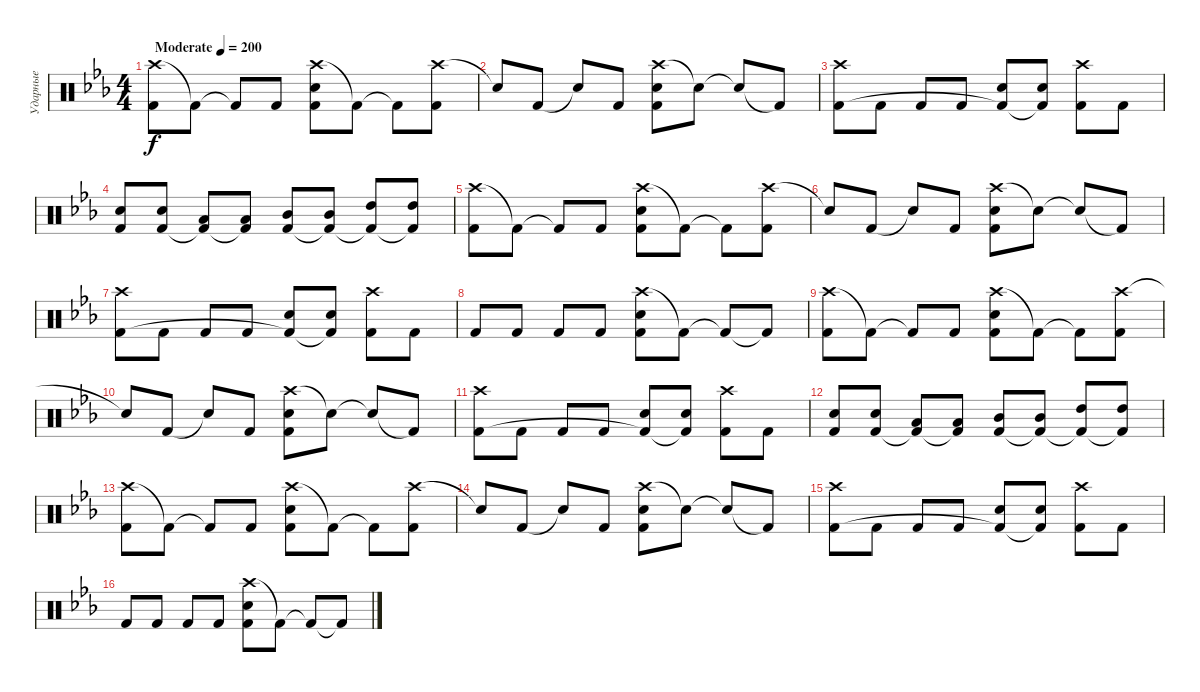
\track ("Ударные" "Ударные") {instrument percussion}
\staff {score}
\articulation defaults
\ts (4 4)
\tempo (200 "Moderate")
\clef neutral
\ks cminor
("Crash high (hit)" "Kick (hit) 2").8{dy f} "Kick (hit) 2"{t}.8 "Kick (hit) 2"{t}.8 "Kick (hit) 2".8 ("Crash high (hit)" "Electric Snare (hit)" "Kick (hit) 2").8 "Kick (hit) 2"{t}.8 "Kick (hit) 2"{t}.8 ("Crash high (hit)" "Kick (hit) 2").8 |
"Snare (hit)"{t}.8 "Kick (hit) 2".8 "Snare (hit)"{t}.8 "Kick (hit) 2".8 ("Crash high (hit)" "Electric Snare (hit)" "Kick (hit) 2").8 "Snare (hit)"{t}.8 "Snare (hit)"{t}.8 "Kick (hit) 2"{t}.8 |
("Crash high (hit)" "Kick (hit) 2").8 "Kick (hit) 2".8 "Kick (hit) 2".8 "Kick (hit) 2".8 ("Electric Snare (hit)" "Kick (hit) 2"{t}).8 ("Electric Snare (hit)" "Kick (hit) 2"{t}).8 ("Crash high (hit)" "Kick (hit) 2").8 "Kick (hit) 2".8 |
("Electric Snare (hit)" "Kick (hit) 2").8 ("Electric Snare (hit)" "Kick (hit) 2").8 ("Low Tom (hit)" "Kick (hit) 2"{t}).8 ("Low Tom (hit)" "Kick (hit) 2"{t}).8 ("Mid Tom (hit)" "Kick (hit) 2").8 ("Mid Tom (hit)" "Kick (hit) 2"{t}).8 ("High Tom (hit)" "Kick (hit) 2"{t}).8 ("High Tom (hit)" "Kick (hit) 2"{t}).8 |
("Crash high (hit)" "Kick (hit) 2").8 "Kick (hit) 2"{t}.8 "Kick (hit) 2"{t}.8 "Kick (hit) 2".8 ("Crash high (hit)" "Electric Snare (hit)" "Kick (hit) 2").8 "Kick (hit) 2"{t}.8 "Kick (hit) 2"{t}.8 ("Crash high (hit)" "Kick (hit) 2").8 |
"Snare (hit)"{t}.8 "Kick (hit) 2".8 "Snare (hit)"{t}.8 "Kick (hit) 2".8 ("Crash high (hit)" "Electric Snare (hit)" "Kick (hit) 2").8 "Snare (hit)"{t}.8 "Snare (hit)"{t}.8 "Kick (hit) 2"{t}.8 |
("Crash high (hit)" "Kick (hit) 2").8 "Kick (hit) 2".8 "Kick (hit) 2".8 "Kick (hit) 2".8 ("Electric Snare (hit)" "Kick (hit) 2"{t}).8 ("Electric Snare (hit)" "Kick (hit) 2"{t}).8 ("Crash high (hit)" "Kick (hit) 2").8 "Kick (hit) 2".8 |
"Kick (hit) 2".8 "Kick (hit) 2".8 "Kick (hit) 2".8 "Kick (hit) 2".8 ("Crash high (hit)" "Electric Snare (hit)" "Kick (hit) 2").8 "Kick (hit) 2"{t}.8 "Kick (hit) 2"{t}.8 "Kick (hit) 2"{t}.8 |
("Crash high (hit)" "Kick (hit) 2").8 "Kick (hit) 2"{t}.8 "Kick (hit) 2"{t}.8 "Kick (hit) 2".8 ("Crash high (hit)" "Electric Snare (hit)" "Kick (hit) 2").8 "Kick (hit) 2"{t}.8 "Kick (hit) 2"{t}.8 ("Crash high (hit)" "Kick (hit) 2").8 |
"Snare (hit)"{t}.8 "Kick (hit) 2".8 "Snare (hit)"{t}.8 "Kick (hit) 2".8 ("Crash high (hit)" "Electric Snare (hit)" "Kick (hit) 2").8 "Snare (hit)"{t}.8 "Snare (hit)"{t}.8 "Kick (hit) 2"{t}.8 |
("Crash high (hit)" "Kick (hit) 2").8 "Kick (hit) 2".8 "Kick (hit) 2".8 "Kick (hit) 2".8 ("Electric Snare (hit)" "Kick (hit) 2"{t}).8 ("Electric Snare (hit)" "Kick (hit) 2"{t}).8 ("Crash high (hit)" "Kick (hit) 2").8 "Kick (hit) 2".8 |
("Electric Snare (hit)" "Kick (hit) 2").8 ("Electric Snare (hit)" "Kick (hit) 2").8 ("Low Tom (hit)" "Kick (hit) 2"{t}).8 ("Low Tom (hit)" "Kick (hit) 2"{t}).8 ("Mid Tom (hit)" "Kick (hit) 2").8 ("Mid Tom (hit)" "Kick (hit) 2"{t}).8 ("High Tom (hit)" "Kick (hit) 2"{t}).8 ("High Tom (hit)" "Kick (hit) 2"{t}).8 |
("Crash high (hit)" "Kick (hit) 2").8 "Kick (hit) 2"{t}.8 "Kick (hit) 2"{t}.8 "Kick (hit) 2".8 ("Crash high (hit)" "Electric Snare (hit)" "Kick (hit) 2").8 "Kick (hit) 2"{t}.8 "Kick (hit) 2"{t}.8 ("Crash high (hit)" "Kick (hit) 2").8 |
"Snare (hit)"{t}.8 "Kick (hit) 2".8 "Snare (hit)"{t}.8 "Kick (hit) 2".8 ("Crash high (hit)" "Electric Snare (hit)" "Kick (hit) 2").8 "Snare (hit)"{t}.8 "Snare (hit)"{t}.8 "Kick (hit) 2"{t}.8 |
("Crash high (hit)" "Kick (hit) 2").8 "Kick (hit) 2".8 "Kick (hit) 2".8 "Kick (hit) 2".8 ("Electric Snare (hit)" "Kick (hit) 2"{t}).8 ("Electric Snare (hit)" "Kick (hit) 2"{t}).8 ("Crash high (hit)" "Kick (hit) 2").8 "Kick (hit) 2".8 |
"Kick (hit) 2".8 "Kick (hit) 2".8 "Kick (hit) 2".8 "Kick (hit) 2".8 ("Crash high (hit)" "Electric Snare (hit)" "Kick (hit) 2").8 "Kick (hit) 2"{t}.8 "Kick (hit) 2"{t}.8 "Kick (hit) 2"{t}.8
